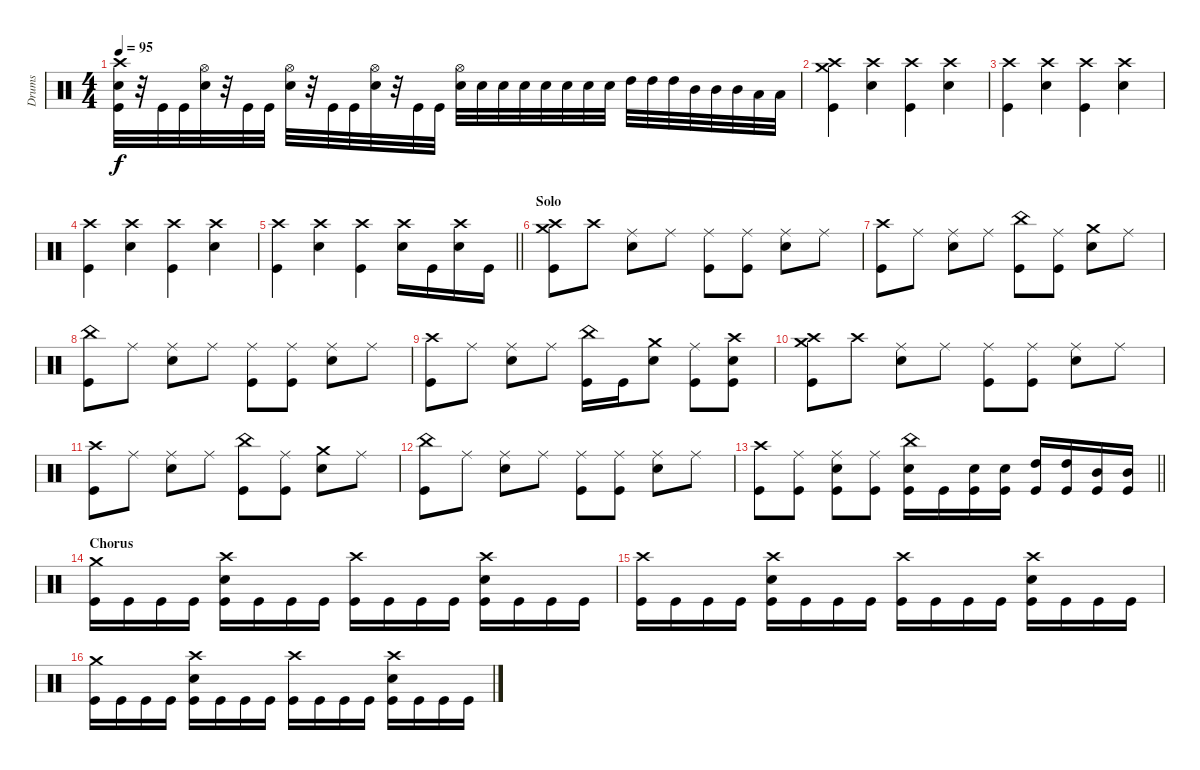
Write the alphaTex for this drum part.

\track ("Drums" "Drums") {instrument percussion}
\staff {score}
\articulation defaults
\ts (4 4)
\tempo 95
\clef neutral
\ks c
("Crash high (hit)" "Snare (hit) 2" "Kick (hit)").32{dy f} r.32 "Kick (hit)".32 "Kick (hit)".32 ("Hi-Hat (open)" "Snare (hit) 2").32 r.32 "Kick (hit)".32 "Kick (hit)".32 ("Hi-Hat (open)" "Snare (hit) 2").32 r.32 "Kick (hit)".32 "Kick (hit)".32 ("Hi-Hat (open)" "Snare (hit) 2").32 r.32 "Kick (hit)".32 "Kick (hit)".32 ("Hi-Hat (open)" "Snare (hit) 2").32 "Snare (hit) 2".32 "Snare (hit) 2".32 "Snare (hit) 2".32 "Snare (hit) 2".32 "Snare (hit) 2".32 "Snare (hit) 2".32 "Snare (hit) 2".32 "High Tom (hit)".32 "High Tom (hit)".32 "High Tom (hit)".32 "Mid Tom (hit)".32 "Mid Tom (hit)".32 "Mid Tom (hit)".32 "Low Tom (hit)".32 "Low Tom (hit)".32 |
("Crash medium (hit)" "Crash high (hit)" "Kick (hit)").4 ("Crash high (hit)" "Snare (hit) 2").4 ("Crash high (hit)" "Kick (hit)").4 ("Crash high (hit)" "Snare (hit) 2").4 |
("Crash high (hit)" "Kick (hit)").4 ("Crash high (hit)" "Snare (hit) 2").4 ("Crash high (hit)" "Kick (hit)").4 ("Crash high (hit)" "Snare (hit) 2").4 |
("Crash high (hit)" "Kick (hit)").4 ("Crash high (hit)" "Snare (hit) 2").4 ("Crash high (hit)" "Kick (hit)").4 ("Crash high (hit)" "Snare (hit) 2").4 |
\barLineRight lightlight
("Crash high (hit)" "Kick (hit)").4 ("Crash high (hit)" "Snare (hit) 2").4 ("Crash high (hit)" "Kick (hit)").4 ("Crash high (hit)" "Snare (hit) 2").16 "Kick (hit)".16 ("Crash high (hit)" "Snare (hit) 2").16 "Kick (hit)".16 |
\section ("" "Solo")
("Crash medium (hit)" "Crash high (hit)" "Kick (hit)").8 "Crash high (hit)".8 ("Ride (middle)" "Snare (hit) 2").8 "Ride (middle)".8 ("Ride (middle)" "Kick (hit)").8 ("Ride (middle)" "Kick (hit)").8 ("Ride (middle)" "Snare (hit) 2").8 "Ride (middle)".8 |
("Crash high (hit)" "Kick (hit)").8 "Ride (middle)".8 ("Ride (middle)" "Snare (hit) 2").8 "Ride (middle)".8 ("China (hit)" "Kick (hit)").8 ("Ride (middle)" "Kick (hit)").8 ("Crash medium (hit)" "Snare (hit) 2").8 "Ride (middle)".8 |
("China (hit)" "Kick (hit)").8 "Ride (middle)".8 ("Ride (middle)" "Snare (hit) 2").8 "Ride (middle)".8 ("Ride (middle)" "Kick (hit)").8 ("Ride (middle)" "Kick (hit)").8 ("Ride (middle)" "Snare (hit) 2").8 "Ride (middle)".8 |
("Crash high (hit)" "Kick (hit)").8 "Ride (middle)".8 ("Ride (middle)" "Snare (hit) 2").8 "Ride (middle)".8 ("China (hit)" "Kick (hit)").16 "Kick (hit)".16 ("Crash medium (hit)" "Snare (hit) 2").8 ("Ride (middle)" "Kick (hit)").8 ("Crash high (hit)" "Snare (hit) 2" "Kick (hit)").8 |
("Crash medium (hit)" "Crash high (hit)" "Kick (hit)").8 "Crash high (hit)".8 ("Ride (middle)" "Snare (hit) 2").8 "Ride (middle)".8 ("Ride (middle)" "Kick (hit)").8 ("Ride (middle)" "Kick (hit)").8 ("Ride (middle)" "Snare (hit) 2").8 "Ride (middle)".8 |
("Crash high (hit)" "Kick (hit)").8 "Ride (middle)".8 ("Ride (middle)" "Snare (hit) 2").8 "Ride (middle)".8 ("China (hit)" "Kick (hit)").8 ("Ride (middle)" "Kick (hit)").8 ("Crash medium (hit)" "Snare (hit) 2").8 "Ride (middle)".8 |
("China (hit)" "Kick (hit)").8 "Ride (middle)".8 ("Ride (middle)" "Snare (hit) 2").8 "Ride (middle)".8 ("Ride (middle)" "Kick (hit)").8 ("Ride (middle)" "Kick (hit)").8 ("Ride (middle)" "Snare (hit) 2").8 "Ride (middle)".8 |
\barLineRight lightlight
("Crash high (hit)" "Kick (hit)").8 ("Ride (middle)" "Kick (hit)").8 ("Ride (middle)" "Snare (hit) 2" "Kick (hit)").8 ("Ride (middle)" "Kick (hit)").8 ("China (hit)" "Snare (hit) 2" "Kick (hit)").16 "Kick (hit)".16 ("Snare (hit) 2" "Kick (hit)").16 ("Snare (hit) 2" "Kick (hit)").16 ("High Tom (hit)" "Kick (hit)").16 ("High Tom (hit)" "Kick (hit)").16 ("Mid Tom (hit)" "Kick (hit)").16 ("Mid Tom (hit)" "Kick (hit)").16 |
\section ("" "Chorus")
("Crash medium (hit)" "Kick (hit)").16 "Kick (hit)".16 "Kick (hit)".16 "Kick (hit)".16 ("Crash high (hit)" "Snare (hit) 2" "Kick (hit)").16 "Kick (hit)".16 "Kick (hit)".16 "Kick (hit)".16 ("Crash high (hit)" "Kick (hit)").16 "Kick (hit)".16 "Kick (hit)".16 "Kick (hit)".16 ("Crash high (hit)" "Snare (hit) 2" "Kick (hit)").16 "Kick (hit)".16 "Kick (hit)".16 "Kick (hit)".16 |
("Crash high (hit)" "Kick (hit)").16 "Kick (hit)".16 "Kick (hit)".16 "Kick (hit)".16 ("Crash high (hit)" "Snare (hit) 2" "Kick (hit)").16 "Kick (hit)".16 "Kick (hit)".16 "Kick (hit)".16 ("Crash high (hit)" "Kick (hit)").16 "Kick (hit)".16 "Kick (hit)".16 "Kick (hit)".16 ("Crash high (hit)" "Snare (hit) 2" "Kick (hit)").16 "Kick (hit)".16 "Kick (hit)".16 "Kick (hit)".16 |
("Crash medium (hit)" "Kick (hit)").16 "Kick (hit)".16 "Kick (hit)".16 "Kick (hit)".16 ("Crash high (hit)" "Snare (hit) 2" "Kick (hit)").16 "Kick (hit)".16 "Kick (hit)".16 "Kick (hit)".16 ("Crash high (hit)" "Kick (hit)").16 "Kick (hit)".16 "Kick (hit)".16 "Kick (hit)".16 ("Crash high (hit)" "Snare (hit) 2" "Kick (hit)").16 "Kick (hit)".16 "Kick (hit)".16 "Kick (hit)".16
